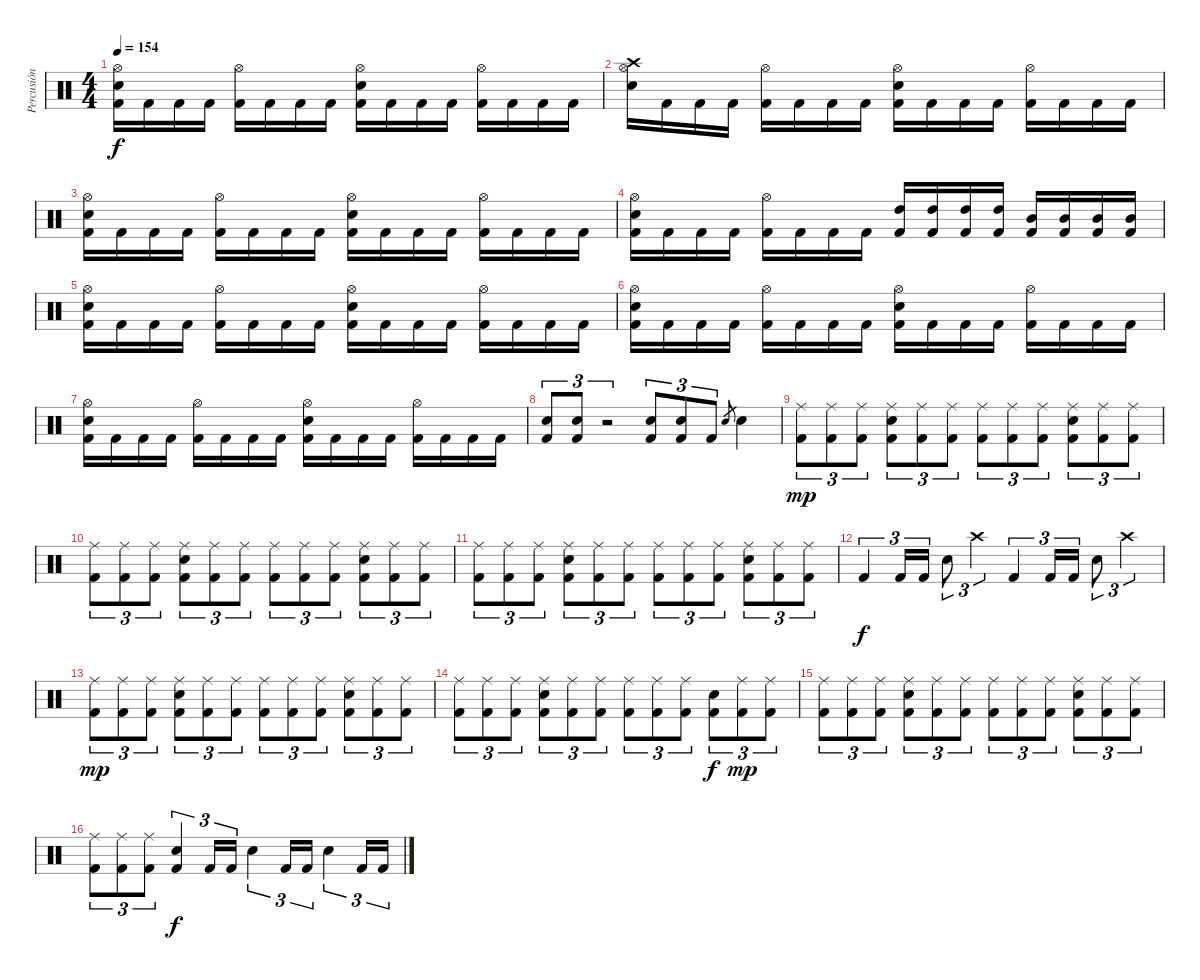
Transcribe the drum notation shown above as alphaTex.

\track ("Percusión" "Percusión") {instrument percussion}
\staff {score}
\articulation defaults
\ts (4 4)
\tempo 154
\clef neutral
\ks c
("Hi-Hat (open)" "Electric Snare (hit)" "Kick (hit) 2").16{dy f} "Kick (hit) 2".16 "Kick (hit) 2".16 "Kick (hit) 2".16 ("Hi-Hat (open)" "Kick (hit) 2").16 "Kick (hit) 2".16 "Kick (hit) 2".16 "Kick (hit) 2".16 ("Hi-Hat (open)" "Electric Snare (hit)" "Kick (hit) 2").16 "Kick (hit) 2".16 "Kick (hit) 2".16 "Kick (hit) 2".16 ("Hi-Hat (open)" "Kick (hit) 2").16 "Kick (hit) 2".16 "Kick (hit) 2".16 "Kick (hit) 2".16 |
("Hi-Hat (open)" "Electric Snare (hit)" "Crash high (hit)").16 "Kick (hit) 2".16 "Kick (hit) 2".16 "Kick (hit) 2".16 ("Hi-Hat (open)" "Kick (hit) 2").16 "Kick (hit) 2".16 "Kick (hit) 2".16 "Kick (hit) 2".16 ("Hi-Hat (open)" "Electric Snare (hit)" "Kick (hit) 2").16 "Kick (hit) 2".16 "Kick (hit) 2".16 "Kick (hit) 2".16 ("Hi-Hat (open)" "Kick (hit) 2").16 "Kick (hit) 2".16 "Kick (hit) 2".16 "Kick (hit) 2".16 |
("Hi-Hat (open)" "Electric Snare (hit)" "Kick (hit) 2").16 "Kick (hit) 2".16 "Kick (hit) 2".16 "Kick (hit) 2".16 ("Hi-Hat (open)" "Kick (hit) 2").16 "Kick (hit) 2".16 "Kick (hit) 2".16 "Kick (hit) 2".16 ("Hi-Hat (open)" "Electric Snare (hit)" "Kick (hit) 2").16 "Kick (hit) 2".16 "Kick (hit) 2".16 "Kick (hit) 2".16 ("Hi-Hat (open)" "Kick (hit) 2").16 "Kick (hit) 2".16 "Kick (hit) 2".16 "Kick (hit) 2".16 |
("Hi-Hat (open)" "Electric Snare (hit)" "Kick (hit) 2").16 "Kick (hit) 2".16 "Kick (hit) 2".16 "Kick (hit) 2".16 ("Hi-Hat (open)" "Kick (hit) 2").16 "Kick (hit) 2".16 "Kick (hit) 2".16 "Kick (hit) 2".16 ("High Tom (hit)" "Kick (hit) 2").16 ("High Tom (hit)" "Kick (hit) 2").16 ("High Tom (hit)" "Kick (hit) 2").16 ("High Tom (hit)" "Kick (hit) 2").16 ("Mid Tom (hit)" "Kick (hit) 2").16 ("Mid Tom (hit)" "Kick (hit) 2").16 ("Mid Tom (hit)" "Kick (hit) 2").16 ("Mid Tom (hit)" "Kick (hit) 2").16 |
("Hi-Hat (open)" "Electric Snare (hit)" "Kick (hit) 2").16 "Kick (hit) 2".16 "Kick (hit) 2".16 "Kick (hit) 2".16 ("Hi-Hat (open)" "Kick (hit) 2").16 "Kick (hit) 2".16 "Kick (hit) 2".16 "Kick (hit) 2".16 ("Hi-Hat (open)" "Electric Snare (hit)" "Kick (hit) 2").16 "Kick (hit) 2".16 "Kick (hit) 2".16 "Kick (hit) 2".16 ("Hi-Hat (open)" "Kick (hit) 2").16 "Kick (hit) 2".16 "Kick (hit) 2".16 "Kick (hit) 2".16 |
("Hi-Hat (open)" "Electric Snare (hit)" "Kick (hit) 2").16 "Kick (hit) 2".16 "Kick (hit) 2".16 "Kick (hit) 2".16 ("Hi-Hat (open)" "Kick (hit) 2").16 "Kick (hit) 2".16 "Kick (hit) 2".16 "Kick (hit) 2".16 ("Hi-Hat (open)" "Electric Snare (hit)" "Kick (hit) 2").16 "Kick (hit) 2".16 "Kick (hit) 2".16 "Kick (hit) 2".16 ("Hi-Hat (open)" "Kick (hit) 2").16 "Kick (hit) 2".16 "Kick (hit) 2".16 "Kick (hit) 2".16 |
("Hi-Hat (open)" "Electric Snare (hit)" "Kick (hit) 2").16 "Kick (hit) 2".16 "Kick (hit) 2".16 "Kick (hit) 2".16 ("Hi-Hat (open)" "Kick (hit) 2").16 "Kick (hit) 2".16 "Kick (hit) 2".16 "Kick (hit) 2".16 ("Hi-Hat (open)" "Electric Snare (hit)" "Kick (hit) 2").16 "Kick (hit) 2".16 "Kick (hit) 2".16 "Kick (hit) 2".16 ("Hi-Hat (open)" "Kick (hit) 2").16 "Kick (hit) 2".16 "Kick (hit) 2".16 "Kick (hit) 2".16 |
("Electric Snare (hit)" "Kick (hit) 2").8{tu (3 2)} ("Electric Snare (hit)" "Kick (hit) 2").8{tu (3 2)} r.2{tu (3 2)} ("Electric Snare (hit)" "Kick (hit) 2").8{tu (3 2)} ("Electric Snare (hit)" "Kick (hit) 2").8{tu (3 2)} "Kick (hit) 2".8{tu (3 2)} "Electric Snare (hit)".8{gr} "Electric Snare (hit)".4 |
("Ride (middle)" "Kick (hit) 2").8{tu (3 2) dy mp} ("Ride (middle)" "Kick (hit) 2").8{tu (3 2)} ("Ride (middle)" "Kick (hit) 2").8{tu (3 2)} ("Ride (middle)" "Electric Snare (hit)" "Kick (hit) 2").8{tu (3 2)} ("Ride (middle)" "Kick (hit) 2").8{tu (3 2)} ("Ride (middle)" "Kick (hit) 2").8{tu (3 2)} ("Ride (middle)" "Kick (hit) 2").8{tu (3 2)} ("Ride (middle)" "Kick (hit) 2").8{tu (3 2)} ("Ride (middle)" "Kick (hit) 2").8{tu (3 2)} ("Ride (middle)" "Electric Snare (hit)" "Kick (hit) 2").8{tu (3 2)} ("Ride (middle)" "Kick (hit) 2").8{tu (3 2)} ("Ride (middle)" "Kick (hit) 2").8{tu (3 2)} |
("Ride (middle)" "Kick (hit) 2").8{tu (3 2)} ("Ride (middle)" "Kick (hit) 2").8{tu (3 2)} ("Ride (middle)" "Kick (hit) 2").8{tu (3 2)} ("Ride (middle)" "Electric Snare (hit)" "Kick (hit) 2").8{tu (3 2)} ("Ride (middle)" "Kick (hit) 2").8{tu (3 2)} ("Ride (middle)" "Kick (hit) 2").8{tu (3 2)} ("Ride (middle)" "Kick (hit) 2").8{tu (3 2)} ("Ride (middle)" "Kick (hit) 2").8{tu (3 2)} ("Ride (middle)" "Kick (hit) 2").8{tu (3 2)} ("Ride (middle)" "Electric Snare (hit)" "Kick (hit) 2").8{tu (3 2)} ("Ride (middle)" "Kick (hit) 2").8{tu (3 2)} ("Ride (middle)" "Kick (hit) 2").8{tu (3 2)} |
("Ride (middle)" "Kick (hit) 2").8{tu (3 2)} ("Ride (middle)" "Kick (hit) 2").8{tu (3 2)} ("Ride (middle)" "Kick (hit) 2").8{tu (3 2)} ("Ride (middle)" "Electric Snare (hit)" "Kick (hit) 2").8{tu (3 2)} ("Ride (middle)" "Kick (hit) 2").8{tu (3 2)} ("Ride (middle)" "Kick (hit) 2").8{tu (3 2)} ("Ride (middle)" "Kick (hit) 2").8{tu (3 2)} ("Ride (middle)" "Kick (hit) 2").8{tu (3 2)} ("Ride (middle)" "Kick (hit) 2").8{tu (3 2)} ("Ride (middle)" "Electric Snare (hit)" "Kick (hit) 2").8{tu (3 2)} ("Ride (middle)" "Kick (hit) 2").8{tu (3 2)} ("Ride (middle)" "Kick (hit) 2").8{tu (3 2)} |
"Kick (hit) 2".4{tu (3 2) dy f} "Kick (hit) 2".16{tu (3 2)} "Kick (hit) 2".16{tu (3 2)} "Electric Snare (hit)".8{tu (3 2)} "Crash high (hit)".4{tu (3 2)} "Kick (hit) 2".4{tu (3 2)} "Kick (hit) 2".16{tu (3 2)} "Kick (hit) 2".16{tu (3 2)} "Electric Snare (hit)".8{tu (3 2)} "Crash high (hit)".4{tu (3 2)} |
("Ride (middle)" "Kick (hit) 2").8{tu (3 2) dy mp} ("Ride (middle)" "Kick (hit) 2").8{tu (3 2)} ("Ride (middle)" "Kick (hit) 2").8{tu (3 2)} ("Ride (middle)" "Electric Snare (hit)" "Kick (hit) 2").8{tu (3 2)} ("Ride (middle)" "Kick (hit) 2").8{tu (3 2)} ("Ride (middle)" "Kick (hit) 2").8{tu (3 2)} ("Ride (middle)" "Kick (hit) 2").8{tu (3 2)} ("Ride (middle)" "Kick (hit) 2").8{tu (3 2)} ("Ride (middle)" "Kick (hit) 2").8{tu (3 2)} ("Ride (middle)" "Electric Snare (hit)" "Kick (hit) 2").8{tu (3 2)} ("Ride (middle)" "Kick (hit) 2").8{tu (3 2)} ("Ride (middle)" "Kick (hit) 2").8{tu (3 2)} |
("Ride (middle)" "Kick (hit) 2").8{tu (3 2)} ("Ride (middle)" "Kick (hit) 2").8{tu (3 2)} ("Ride (middle)" "Kick (hit) 2").8{tu (3 2)} ("Ride (middle)" "Electric Snare (hit)" "Kick (hit) 2").8{tu (3 2)} ("Ride (middle)" "Kick (hit) 2").8{tu (3 2)} ("Ride (middle)" "Kick (hit) 2").8{tu (3 2)} ("Ride (middle)" "Kick (hit) 2").8{tu (3 2)} ("Ride (middle)" "Kick (hit) 2").8{tu (3 2)} ("Ride (middle)" "Kick (hit) 2").8{tu (3 2)} ("Electric Snare (hit)" "Kick (hit) 2").8{tu (3 2) dy f} ("Ride (middle)" "Kick (hit) 2").8{tu (3 2) dy mp} ("Ride (middle)" "Kick (hit) 2").8{tu (3 2)} |
("Ride (middle)" "Kick (hit) 2").8{tu (3 2)} ("Ride (middle)" "Kick (hit) 2").8{tu (3 2)} ("Ride (middle)" "Kick (hit) 2").8{tu (3 2)} ("Ride (middle)" "Electric Snare (hit)" "Kick (hit) 2").8{tu (3 2)} ("Ride (middle)" "Kick (hit) 2").8{tu (3 2)} ("Ride (middle)" "Kick (hit) 2").8{tu (3 2)} ("Ride (middle)" "Kick (hit) 2").8{tu (3 2)} ("Ride (middle)" "Kick (hit) 2").8{tu (3 2)} ("Ride (middle)" "Kick (hit) 2").8{tu (3 2)} ("Ride (middle)" "Electric Snare (hit)" "Kick (hit) 2").8{tu (3 2)} ("Ride (middle)" "Kick (hit) 2").8{tu (3 2)} ("Ride (middle)" "Kick (hit) 2").8{tu (3 2)} |
("Ride (middle)" "Kick (hit) 2").8{tu (3 2)} ("Ride (middle)" "Kick (hit) 2").8{tu (3 2)} ("Ride (middle)" "Kick (hit) 2").8{tu (3 2)} ("Electric Snare (hit)" "Kick (hit) 2").4{tu (3 2) dy f} "Kick (hit) 2".16{tu (3 2)} "Kick (hit) 2".16{tu (3 2)} "Electric Snare (hit)".4{tu (3 2)} "Kick (hit) 2".16{tu (3 2)} "Kick (hit) 2".16{tu (3 2)} "Electric Snare (hit)".4{tu (3 2)} "Kick (hit) 2".16{tu (3 2)} "Kick (hit) 2".16{tu (3 2)}
